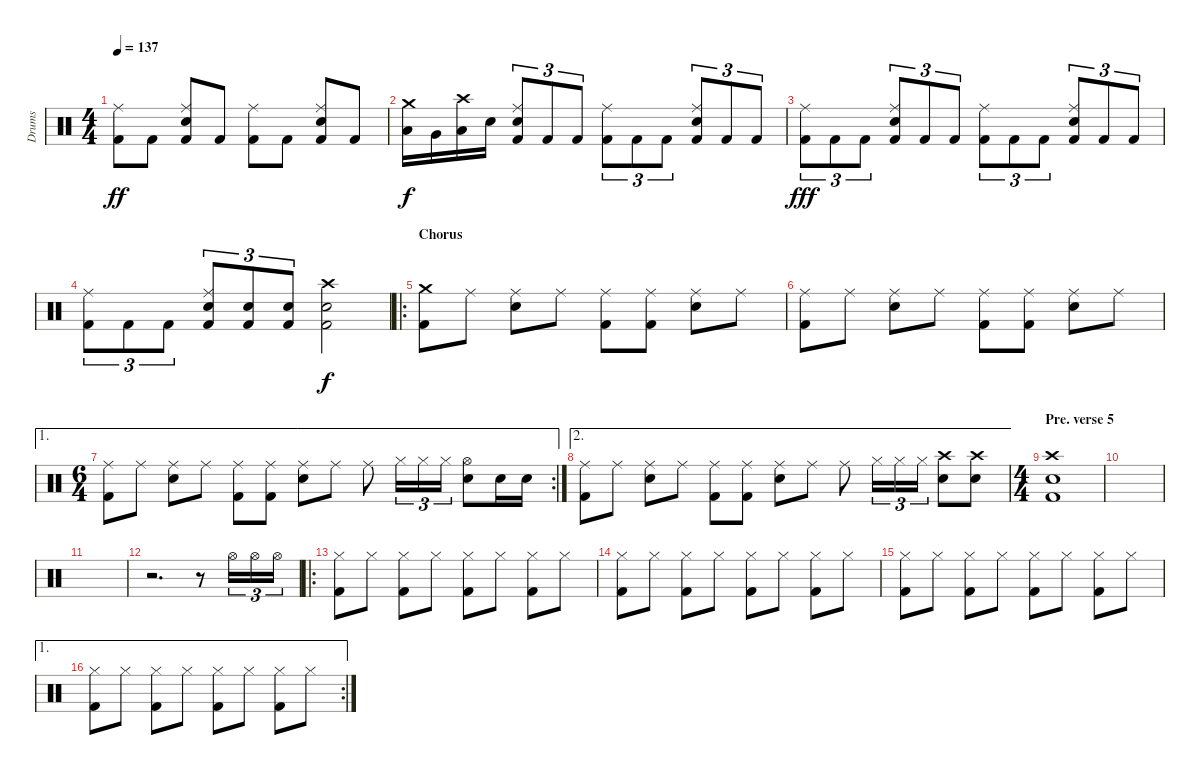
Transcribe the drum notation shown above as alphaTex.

\track ("Drums" "Drums") {instrument percussion}
\staff {score}
\articulation defaults
\ts (4 4)
\tempo 137
\clef neutral
\ks c
("Kick (hit) 2" "Ride (middle)").8{dy ff} "Kick (hit) 2".8 ("Kick (hit) 2" "Electric Snare (hit)" "Ride (middle)").8 "Kick (hit) 2".8 ("Kick (hit) 2" "Ride (middle)").8 "Kick (hit) 2".8 ("Kick (hit) 2" "Electric Snare (hit)" "Ride (middle)").8 "Kick (hit) 2".8 |
("Low Tom (hit)" "Crash medium (hit)").16{dy f} "Very Low Tom (hit)".16 ("Low Floor Tom (hit)" "Crash high (hit)").16 "Electric Snare (hit)".16 ("Kick (hit) 2" "Electric Snare (hit)" "Ride (middle)").8{tu (3 2)} "Kick (hit) 2".8{tu (3 2)} "Kick (hit) 2".8{tu (3 2)} ("Kick (hit) 2" "Ride (middle)").8{tu (3 2)} "Kick (hit) 2".8{tu (3 2)} "Kick (hit) 2".8{tu (3 2)} ("Kick (hit) 2" "Electric Snare (hit)" "Ride (middle)").8{tu (3 2)} "Kick (hit) 2".8{tu (3 2)} "Kick (hit) 2".8{tu (3 2)} |
("Kick (hit) 2" "Ride (middle)").8{tu (3 2) dy fff} "Kick (hit) 2".8{tu (3 2)} "Kick (hit) 2".8{tu (3 2)} ("Kick (hit) 2" "Electric Snare (hit)" "Ride (middle)").8{tu (3 2)} "Kick (hit) 2".8{tu (3 2)} "Kick (hit) 2".8{tu (3 2)} ("Kick (hit) 2" "Ride (middle)").8{tu (3 2)} "Kick (hit) 2".8{tu (3 2)} "Kick (hit) 2".8{tu (3 2)} ("Kick (hit) 2" "Electric Snare (hit)" "Ride (middle)").8{tu (3 2)} "Kick (hit) 2".8{tu (3 2)} "Kick (hit) 2".8{tu (3 2)} |
("Kick (hit) 2" "Ride (middle)").8{tu (3 2)} "Kick (hit) 2".8{tu (3 2)} "Kick (hit) 2".8{tu (3 2)} ("Kick (hit) 2" "Electric Snare (hit)" "Ride (middle)").8{tu (3 2)} ("Kick (hit) 2" "Electric Snare (hit)").8{tu (3 2)} ("Kick (hit) 2" "Electric Snare (hit)").8{tu (3 2)} ("Kick (hit) 2" "Crash high (hit)" "Electric Snare (hit)").2{dy f} |
\ro
\section ("" "Chorus")
("Crash medium (hit)" "Kick (hit) 2").8 "Ride (middle)".8 ("Ride (middle)" "Electric Snare (hit)").8 "Ride (middle)".8 ("Ride (middle)" "Kick (hit) 2").8 ("Ride (middle)" "Kick (hit) 2").8 ("Ride (middle)" "Electric Snare (hit)").8 "Ride (middle)".8 |
("Ride (middle)" "Kick (hit) 2").8 "Ride (middle)".8 ("Ride (middle)" "Electric Snare (hit)").8 "Ride (middle)".8 ("Ride (middle)" "Kick (hit) 2").8 ("Ride (middle)" "Kick (hit) 2").8 ("Ride (middle)" "Electric Snare (hit)").8 "Ride (middle)".8 |
\ae 1
\rc 2
\ts (6 4)
("Ride (middle)" "Kick (hit) 2").8 "Ride (middle)".8 ("Ride (middle)" "Electric Snare (hit)").8 "Ride (middle)".8 ("Ride (middle)" "Kick (hit) 2").8 ("Ride (middle)" "Kick (hit) 2").8 ("Ride (middle)" "Electric Snare (hit)").8 "Ride (middle)".8 "Ride (middle)".8 "Hi-Hat (closed)".16{tu (3 2)} "Hi-Hat (closed)".16{tu (3 2)} "Hi-Hat (closed)".16{tu (3 2)} ("Hi-Hat (open)" "Electric Snare (hit)").8 "Electric Snare (hit)".16 "Electric Snare (hit)".16 |
\ae 2
("Ride (middle)" "Kick (hit) 2").8 "Ride (middle)".8 ("Ride (middle)" "Electric Snare (hit)").8 "Ride (middle)".8 ("Ride (middle)" "Kick (hit) 2").8 ("Ride (middle)" "Kick (hit) 2").8 ("Ride (middle)" "Electric Snare (hit)").8 "Ride (middle)".8 "Ride (middle)".8 "Hi-Hat (closed)".16{tu (3 2)} "Hi-Hat (closed)".16{tu (3 2)} "Hi-Hat (closed)".16{tu (3 2)} ("Crash high (hit)" "Electric Snare (hit)").8 ("Crash high (hit)" "Electric Snare (hit)").8 |
\ts (4 4)
\section ("" "Pre. verse 5")
("Crash high (hit)" "Kick (hit) 2" "Electric Snare (hit)").1 |
|
|
r.2{d} r.8 "Hi-Hat (open)".16{tu (3 2)} "Hi-Hat (open)".16{tu (3 2)} "Hi-Hat (open)".16{tu (3 2)} |
\ro
("Hi-Hat (closed)" "Kick (hit) 2").8 "Hi-Hat (closed)".8 ("Hi-Hat (closed)" "Kick (hit) 2").8 "Hi-Hat (closed)".8 ("Hi-Hat (closed)" "Kick (hit) 2").8 "Hi-Hat (closed)".8 ("Hi-Hat (closed)" "Kick (hit) 2").8 "Hi-Hat (closed)".8 |
("Hi-Hat (closed)" "Kick (hit) 2").8 "Hi-Hat (closed)".8 ("Hi-Hat (closed)" "Kick (hit) 2").8 "Hi-Hat (closed)".8 ("Hi-Hat (closed)" "Kick (hit) 2").8 "Hi-Hat (closed)".8 ("Hi-Hat (closed)" "Kick (hit) 2").8 "Hi-Hat (closed)".8 |
("Hi-Hat (closed)" "Kick (hit) 2").8 "Hi-Hat (closed)".8 ("Hi-Hat (closed)" "Kick (hit) 2").8 "Hi-Hat (closed)".8 ("Hi-Hat (closed)" "Kick (hit) 2").8 "Hi-Hat (closed)".8 ("Hi-Hat (closed)" "Kick (hit) 2").8 "Hi-Hat (closed)".8 |
\ae 1
\rc 2
("Hi-Hat (closed)" "Kick (hit) 2").8 "Hi-Hat (closed)".8 ("Hi-Hat (closed)" "Kick (hit) 2").8 "Hi-Hat (closed)".8 ("Hi-Hat (closed)" "Kick (hit) 2").8 "Hi-Hat (closed)".8 ("Hi-Hat (closed)" "Kick (hit) 2").8 "Hi-Hat (closed)".8
